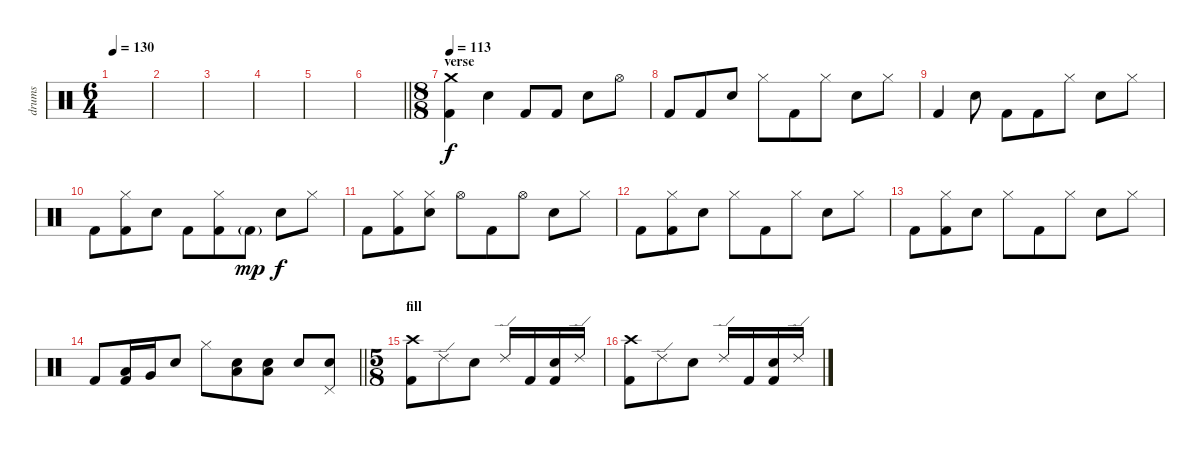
\track ("drums" "drums") {instrument percussion}
\staff {score}
\articulation defaults
\ts (6 4)
\tempo 130
\clef neutral
\ks c
|
|
|
|
|
\barLineRight lightlight
|
\ts (8 8)
\section ("" "verse")
\tempo 113
("Kick (hit) 2" "Crash medium (hit)").4 "Electric Snare (hit)".4 "Kick (hit) 2".8 "Kick (hit) 2".8 "Electric Snare (hit)".8 "Hi-Hat (open)".8 |
"Kick (hit) 2".8 "Kick (hit) 2".8 "Electric Snare (hit)".8 "Hi-Hat (closed)".8 "Kick (hit) 2".8 "Hi-Hat (closed)".8 "Electric Snare (hit)".8 "Hi-Hat (closed)".8 |
"Kick (hit) 2".4 "Electric Snare (hit)".8 "Kick (hit) 2".8 "Kick (hit) 2".8 "Hi-Hat (closed)".8 "Electric Snare (hit)".8 "Hi-Hat (closed)".8 |
"Kick (hit) 2".8 ("Kick (hit) 2" "Hi-Hat (closed)").8 "Electric Snare (hit)".8 "Kick (hit) 2".8 ("Hi-Hat (closed)" "Kick (hit) 2").8 "Kick (hit) 2"{g}.8{dy mp} "Electric Snare (hit)".8{dy f} "Hi-Hat (closed)".8 |
"Kick (hit) 2".8 ("Kick (hit) 2" "Hi-Hat (closed)").8 ("Electric Snare (hit)" "Hi-Hat (closed)").8 "Hi-Hat (open)".8 "Kick (hit) 2".8 "Hi-Hat (open)".8 "Electric Snare (hit)".8 "Hi-Hat (closed)".8 |
"Kick (hit) 2".8 ("Kick (hit) 2" "Hi-Hat (closed)").8 "Electric Snare (hit)".8 "Hi-Hat (closed)".8 "Kick (hit) 2".8 "Hi-Hat (closed)".8 "Electric Snare (hit)".8 "Hi-Hat (closed)".8 |
"Kick (hit) 2".8 ("Kick (hit) 2" "Hi-Hat (closed)").8 "Electric Snare (hit)".8 "Hi-Hat (closed)".8 "Kick (hit) 2".8 "Hi-Hat (closed)".8 "Electric Snare (hit)".8 "Hi-Hat (closed)".8 |
\barLineRight lightlight "Kick (hit) 2".8
("Kick (hit) 2" "Low Tom (hit)").16 "Very Low Tom (hit)".16 "Electric Snare (hit)".8 "Hi-Hat (closed)".8 ("Electric Snare (hit)" "Low Tom (hit)").8 ("Electric Snare (hit)" "Low Tom (hit)").8 "Electric Snare (hit)".8 ("Electric Snare (hit)" "Pedal Hi-Hat (hit)").8 |
\ts (5 8)
\section ("" "fill")
("Crash high (hit)" "Kick (hit) 2").8 "Ride (edge) 2".8 "Electric Snare (hit)".8 "Ride (edge) 2".16 "Kick (hit) 2".16 ("Electric Snare (hit)" "Kick (hit) 2").16 "Ride (edge) 2".16 |
("Crash high (hit)" "Kick (hit) 2").8 "Ride (edge) 2".8 "Electric Snare (hit)".8 "Ride (edge) 2".16 "Kick (hit) 2".16 ("Electric Snare (hit)" "Kick (hit) 2").16 "Ride (edge) 2".16
